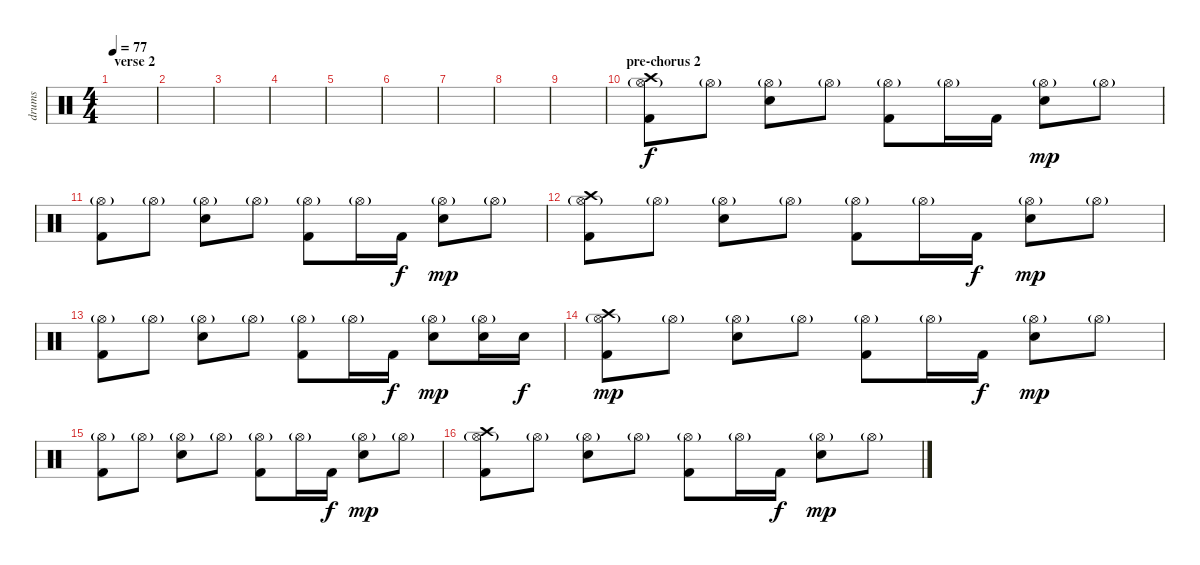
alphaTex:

\track ("drums" "drums") {instrument percussion}
\staff {score}
\articulation defaults
\ts (4 4)
\section ("" "verse 2")
\tempo 77
\clef neutral
\ks c
|
|
|
|
|
|
|
|
|
\section ("" "pre-chorus 2")
("Kick (hit) 2" "Hi-Hat (open)"{g} "Crash high (hit)").8 "Hi-Hat (open)"{g}.8 ("Snare (hit) 2" "Hi-Hat (open)"{g}).8 "Hi-Hat (open)"{g}.8 ("Kick (hit) 2" "Hi-Hat (open)"{g}).8 "Hi-Hat (open)"{g}.16 "Kick (hit) 2".16{dy f} ("Snare (hit) 2" "Hi-Hat (open)"{g}).8{dy mp} "Hi-Hat (open)"{g}.8 |
("Kick (hit) 2" "Hi-Hat (open)"{g}).8 "Hi-Hat (open)"{g}.8 ("Snare (hit) 2" "Hi-Hat (open)"{g}).8 "Hi-Hat (open)"{g}.8 ("Kick (hit) 2" "Hi-Hat (open)"{g}).8 "Hi-Hat (open)"{g}.16 "Kick (hit) 2".16{dy f} ("Snare (hit) 2" "Hi-Hat (open)"{g}).8{dy mp} "Hi-Hat (open)"{g}.8 |
("Kick (hit) 2" "Hi-Hat (open)"{g} "Crash high (hit)").8 "Hi-Hat (open)"{g}.8 ("Snare (hit) 2" "Hi-Hat (open)"{g}).8 "Hi-Hat (open)"{g}.8 ("Kick (hit) 2" "Hi-Hat (open)"{g}).8 "Hi-Hat (open)"{g}.16 "Kick (hit) 2".16{dy f} ("Snare (hit) 2" "Hi-Hat (open)"{g}).8{dy mp} "Hi-Hat (open)"{g}.8 |
("Kick (hit) 2" "Hi-Hat (open)"{g}).8 "Hi-Hat (open)"{g}.8 ("Snare (hit) 2" "Hi-Hat (open)"{g}).8 "Hi-Hat (open)"{g}.8 ("Kick (hit) 2" "Hi-Hat (open)"{g}).8 "Hi-Hat (open)"{g}.16 "Kick (hit) 2".16{dy f} ("Snare (hit) 2" "Hi-Hat (open)"{g}).8{dy mp} ("Snare (hit) 2"{tr (38 16)} "Hi-Hat (open)"{g}).16 "Snare (hit) 2".16{dy f} |
("Kick (hit) 2" "Hi-Hat (open)"{g} "Crash high (hit)").8{dy mp} "Hi-Hat (open)"{g}.8 ("Snare (hit) 2" "Hi-Hat (open)"{g}).8 "Hi-Hat (open)"{g}.8 ("Kick (hit) 2" "Hi-Hat (open)"{g}).8 "Hi-Hat (open)"{g}.16 "Kick (hit) 2".16{dy f} ("Snare (hit) 2" "Hi-Hat (open)"{g}).8{dy mp} "Hi-Hat (open)"{g}.8 |
("Kick (hit) 2" "Hi-Hat (open)"{g}).8 "Hi-Hat (open)"{g}.8 ("Snare (hit) 2" "Hi-Hat (open)"{g}).8 "Hi-Hat (open)"{g}.8 ("Kick (hit) 2" "Hi-Hat (open)"{g}).8 "Hi-Hat (open)"{g}.16 "Kick (hit) 2".16{dy f} ("Snare (hit) 2" "Hi-Hat (open)"{g}).8{dy mp} "Hi-Hat (open)"{g}.8 |
("Kick (hit) 2" "Hi-Hat (open)"{g} "Crash high (hit)").8 "Hi-Hat (open)"{g}.8 ("Snare (hit) 2" "Hi-Hat (open)"{g}).8 "Hi-Hat (open)"{g}.8 ("Kick (hit) 2" "Hi-Hat (open)"{g}).8 "Hi-Hat (open)"{g}.16 "Kick (hit) 2".16{dy f} ("Snare (hit) 2" "Hi-Hat (open)"{g}).8{dy mp} "Hi-Hat (open)"{g}.8
